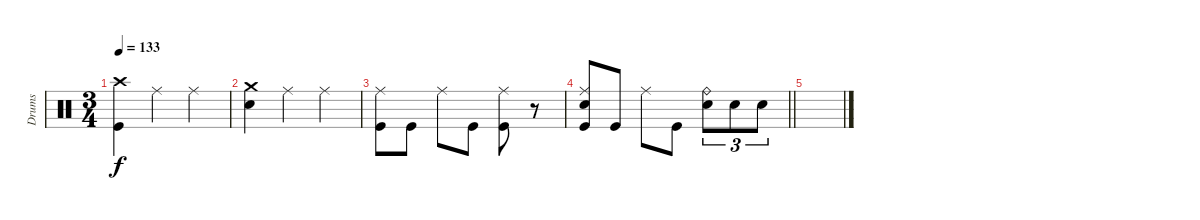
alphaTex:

\track ("Drums" "Drums") {instrument percussion}
\staff
\articulation defaults
\ts (3 4)
\tempo 133
\clef neutral
\ks c
("Crash high (hit)" "Kick (hit)").4{dy f} "Ride (middle)".4 "Ride (middle)".4 |
("Crash medium (hit)" "Electric Snare (hit)").4 "Ride (middle)".4 "Ride (middle)".4 |
("Ride (middle)" "Kick (hit)").8 "Kick (hit)".8 "Ride (middle)".8 "Kick (hit)".8 ("Ride (middle)" "Kick (hit)").8 r.8 |
\barLineRight lightlight
("Ride (middle)" "Electric Snare (hit)" "Kick (hit)").8 "Kick (hit)".8 "Ride (middle)".8 "Kick (hit)".8 ("Ride (bell)" "Electric Snare (hit)").8{tu (3 2)} "Electric Snare (hit)".8{tu (3 2)} "Electric Snare (hit)".8{tu (3 2)} |
\section ("" "")
